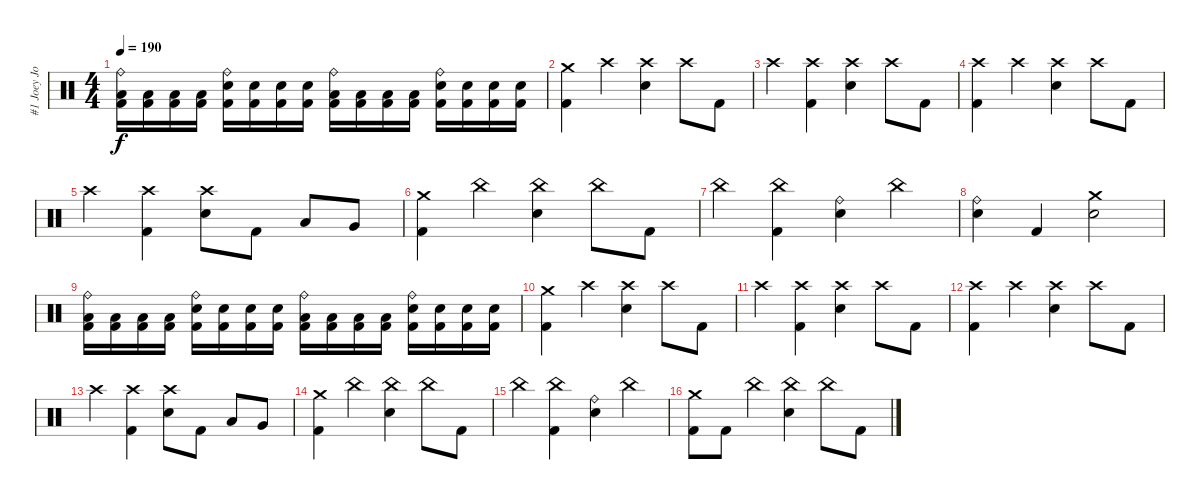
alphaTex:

\track ("#1 Joey Jordison" "#1 Joey Jo") {instrument percussion}
\staff {score}
\articulation defaults
\ts (4 4)
\tempo 190
\clef neutral
\ks c
("Ride (bell)" "Low Floor Tom (hit)" "Kick (hit) 2").16{dy f} ("Low Floor Tom (hit)" "Kick (hit) 2").16 ("Low Floor Tom (hit)" "Kick (hit) 2").16 ("Low Floor Tom (hit)" "Kick (hit) 2").16 ("Ride (bell)" "Electric Snare (hit)" "Kick (hit) 2").16 ("Electric Snare (hit)" "Kick (hit) 2").16 ("Electric Snare (hit)" "Kick (hit) 2").16 ("Electric Snare (hit)" "Kick (hit) 2").16 ("Ride (bell)" "Low Floor Tom (hit)" "Kick (hit) 2").16 ("Low Floor Tom (hit)" "Kick (hit) 2").16 ("Low Floor Tom (hit)" "Kick (hit) 2").16 ("Low Floor Tom (hit)" "Kick (hit) 2").16 ("Ride (bell)" "Electric Snare (hit)" "Kick (hit) 2").16 ("Electric Snare (hit)" "Kick (hit) 2").16 ("Electric Snare (hit)" "Kick (hit) 2").16 ("Electric Snare (hit)" "Kick (hit) 2").16 |
("Crash medium (hit)" "Kick (hit) 2").4 "Crash high (hit)".4 ("Crash high (hit)" "Electric Snare (hit)").4 "Crash high (hit)".8 "Kick (hit) 2".8 |
"Crash high (hit)".4 ("Crash high (hit)" "Kick (hit) 2").4 ("Crash high (hit)" "Electric Snare (hit)").4 "Crash high (hit)".8 "Kick (hit) 2".8 |
("Crash high (hit)" "Kick (hit) 2").4 "Crash high (hit)".4 ("Crash high (hit)" "Electric Snare (hit)").4 "Crash high (hit)".8 "Kick (hit) 2".8 |
"Crash high (hit)".4 ("Crash high (hit)" "Kick (hit) 2").4 ("Crash high (hit)" "Electric Snare (hit)").8 "Kick (hit) 2".8 "Low Tom (hit)".8 "Very Low Tom (hit)".8 |
("Crash medium (hit)" "Kick (hit) 2").4 "China (hit)".4 ("China (hit)" "Electric Snare (hit)").4 "China (hit)".8 "Kick (hit) 2".8 |
"China (hit)".4 ("China (hit)" "Kick (hit) 2").4 ("Ride (bell)" "Electric Snare (hit)").4 "China (hit)".4 |
("Ride (bell)" "Electric Snare (hit)").4 "Kick (hit) 2".4 ("Crash medium (hit)" "Electric Snare (hit)").2 |
("Ride (bell)" "Low Floor Tom (hit)" "Kick (hit) 2").16 ("Low Floor Tom (hit)" "Kick (hit) 2").16 ("Low Floor Tom (hit)" "Kick (hit) 2").16 ("Low Floor Tom (hit)" "Kick (hit) 2").16 ("Ride (bell)" "Electric Snare (hit)" "Kick (hit) 2").16 ("Electric Snare (hit)" "Kick (hit) 2").16 ("Electric Snare (hit)" "Kick (hit) 2").16 ("Electric Snare (hit)" "Kick (hit) 2").16 ("Ride (bell)" "Low Floor Tom (hit)" "Kick (hit) 2").16 ("Low Floor Tom (hit)" "Kick (hit) 2").16 ("Low Floor Tom (hit)" "Kick (hit) 2").16 ("Low Floor Tom (hit)" "Kick (hit) 2").16 ("Ride (bell)" "Electric Snare (hit)" "Kick (hit) 2").16 ("Electric Snare (hit)" "Kick (hit) 2").16 ("Electric Snare (hit)" "Kick (hit) 2").16 ("Electric Snare (hit)" "Kick (hit) 2").16 |
("Crash medium (hit)" "Kick (hit) 2").4 "Crash high (hit)".4 ("Crash high (hit)" "Electric Snare (hit)").4 "Crash high (hit)".8 "Kick (hit) 2".8 |
"Crash high (hit)".4 ("Crash high (hit)" "Kick (hit) 2").4 ("Crash high (hit)" "Electric Snare (hit)").4 "Crash high (hit)".8 "Kick (hit) 2".8 |
("Crash high (hit)" "Kick (hit) 2").4 "Crash high (hit)".4 ("Crash high (hit)" "Electric Snare (hit)").4 "Crash high (hit)".8 "Kick (hit) 2".8 |
"Crash high (hit)".4 ("Crash high (hit)" "Kick (hit) 2").4 ("Crash high (hit)" "Electric Snare (hit)").8 "Kick (hit) 2".8 "Low Tom (hit)".8 "Very Low Tom (hit)".8 |
("Crash medium (hit)" "Kick (hit) 2").4 "China (hit)".4 ("China (hit)" "Electric Snare (hit)").4 "China (hit)".8 "Kick (hit) 2".8 |
"China (hit)".4 ("China (hit)" "Kick (hit) 2").4 ("Ride (bell)" "Electric Snare (hit)").4 "China (hit)".4 |
("Crash medium (hit)" "Kick (hit) 2").8 "Kick (hit) 2".8 "China (hit)".4 ("China (hit)" "Electric Snare (hit)").4 "China (hit)".8 "Kick (hit) 2".8
